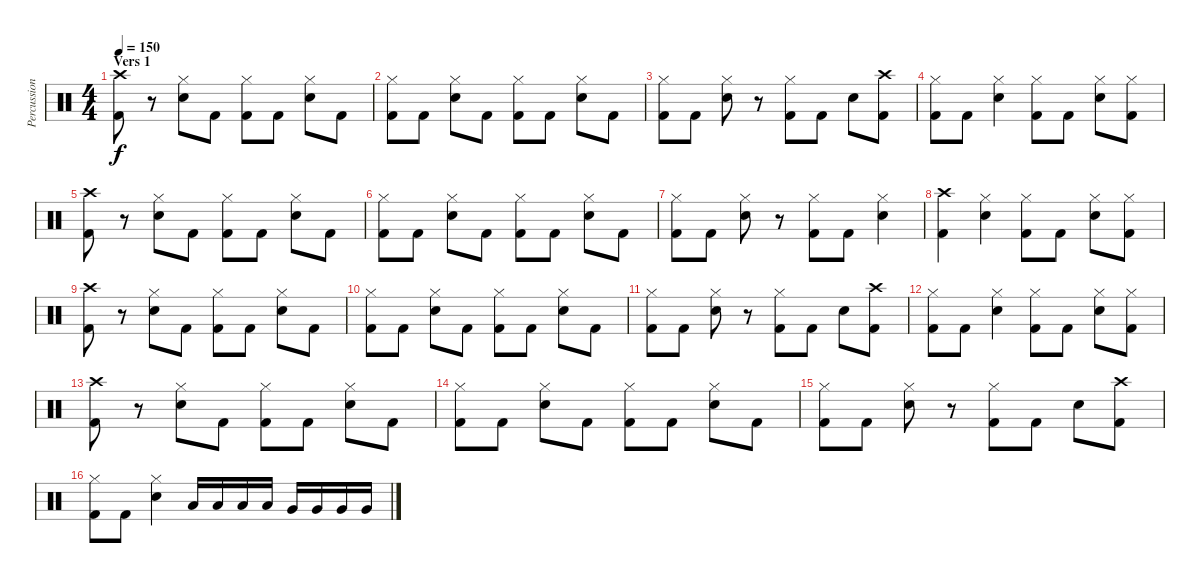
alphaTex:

\track ("Percussion" "Percussion") {instrument percussion}
\staff {score}
\articulation defaults
\ts (4 4)
\section ("" "Vers 1")
\tempo 150
\clef neutral
\ks c
("Crash high (hit)" "Kick (hit) 2").8{dy f} r.8 ("Hi-Hat (closed)" "Electric Snare (hit)").8 "Kick (hit) 2".8 ("Hi-Hat (closed)" "Kick (hit) 2").8 "Kick (hit) 2".8 ("Hi-Hat (closed)" "Electric Snare (hit)").8 "Kick (hit) 2".8 |
("Hi-Hat (closed)" "Kick (hit) 2").8 "Kick (hit) 2".8 ("Hi-Hat (closed)" "Electric Snare (hit)").8 "Kick (hit) 2".8 ("Hi-Hat (closed)" "Kick (hit) 2").8 "Kick (hit) 2".8 ("Hi-Hat (closed)" "Electric Snare (hit)").8 "Kick (hit) 2".8 |
("Hi-Hat (closed)" "Kick (hit) 2").8 "Kick (hit) 2".8 ("Hi-Hat (closed)" "Electric Snare (hit)").8 r.8 ("Hi-Hat (closed)" "Kick (hit) 2").8 "Kick (hit) 2".8 "Electric Snare (hit)".8 ("Crash high (hit)" "Kick (hit) 2").8 |
("Hi-Hat (closed)" "Kick (hit) 2").8 "Kick (hit) 2".8 ("Hi-Hat (closed)" "Electric Snare (hit)").4 ("Hi-Hat (closed)" "Kick (hit) 2").8 "Kick (hit) 2".8 ("Hi-Hat (closed)" "Electric Snare (hit)").8 ("Hi-Hat (closed)" "Kick (hit) 2").8 |
("Crash high (hit)" "Kick (hit) 2").8 r.8 ("Hi-Hat (closed)" "Electric Snare (hit)").8 "Kick (hit) 2".8 ("Hi-Hat (closed)" "Kick (hit) 2").8 "Kick (hit) 2".8 ("Hi-Hat (closed)" "Electric Snare (hit)").8 "Kick (hit) 2".8 |
("Hi-Hat (closed)" "Kick (hit) 2").8 "Kick (hit) 2".8 ("Hi-Hat (closed)" "Electric Snare (hit)").8 "Kick (hit) 2".8 ("Hi-Hat (closed)" "Kick (hit) 2").8 "Kick (hit) 2".8 ("Hi-Hat (closed)" "Electric Snare (hit)").8 "Kick (hit) 2".8 |
("Hi-Hat (closed)" "Kick (hit) 2").8 "Kick (hit) 2".8 ("Hi-Hat (closed)" "Electric Snare (hit)").8 r.8 ("Hi-Hat (closed)" "Kick (hit) 2").8 "Kick (hit) 2".8 ("Hi-Hat (closed)" "Electric Snare (hit)").4 |
("Crash high (hit)" "Kick (hit) 2").4 ("Hi-Hat (closed)" "Electric Snare (hit)").4 ("Hi-Hat (closed)" "Kick (hit) 2").8 "Kick (hit) 2".8 ("Hi-Hat (closed)" "Electric Snare (hit)").8 ("Hi-Hat (closed)" "Kick (hit) 2").8 |
("Crash high (hit)" "Kick (hit) 2").8 r.8 ("Hi-Hat (closed)" "Electric Snare (hit)").8 "Kick (hit) 2".8 ("Hi-Hat (closed)" "Kick (hit) 2").8 "Kick (hit) 2".8 ("Hi-Hat (closed)" "Electric Snare (hit)").8 "Kick (hit) 2".8 |
("Hi-Hat (closed)" "Kick (hit) 2").8 "Kick (hit) 2".8 ("Hi-Hat (closed)" "Electric Snare (hit)").8 "Kick (hit) 2".8 ("Hi-Hat (closed)" "Kick (hit) 2").8 "Kick (hit) 2".8 ("Hi-Hat (closed)" "Electric Snare (hit)").8 "Kick (hit) 2".8 |
("Hi-Hat (closed)" "Kick (hit) 2").8 "Kick (hit) 2".8 ("Hi-Hat (closed)" "Electric Snare (hit)").8 r.8 ("Hi-Hat (closed)" "Kick (hit) 2").8 "Kick (hit) 2".8 "Electric Snare (hit)".8 ("Crash high (hit)" "Kick (hit) 2").8 |
("Hi-Hat (closed)" "Kick (hit) 2").8 "Kick (hit) 2".8 ("Hi-Hat (closed)" "Electric Snare (hit)").4 ("Hi-Hat (closed)" "Kick (hit) 2").8 "Kick (hit) 2".8 ("Hi-Hat (closed)" "Electric Snare (hit)").8 ("Hi-Hat (closed)" "Kick (hit) 2").8 |
("Crash high (hit)" "Kick (hit) 2").8 r.8 ("Hi-Hat (closed)" "Electric Snare (hit)").8 "Kick (hit) 2".8 ("Hi-Hat (closed)" "Kick (hit) 2").8 "Kick (hit) 2".8 ("Hi-Hat (closed)" "Electric Snare (hit)").8 "Kick (hit) 2".8 |
("Hi-Hat (closed)" "Kick (hit) 2").8 "Kick (hit) 2".8 ("Hi-Hat (closed)" "Electric Snare (hit)").8 "Kick (hit) 2".8 ("Hi-Hat (closed)" "Kick (hit) 2").8 "Kick (hit) 2".8 ("Hi-Hat (closed)" "Electric Snare (hit)").8 "Kick (hit) 2".8 |
("Hi-Hat (closed)" "Kick (hit) 2").8 "Kick (hit) 2".8 ("Hi-Hat (closed)" "Electric Snare (hit)").8 r.8 ("Hi-Hat (closed)" "Kick (hit) 2").8 "Kick (hit) 2".8 "Electric Snare (hit)".8 ("Crash high (hit)" "Kick (hit) 2").8 |
("Hi-Hat (closed)" "Kick (hit) 2").8 "Kick (hit) 2".8 ("Hi-Hat (closed)" "Electric Snare (hit)").4 "Low Tom (hit)".16 "Low Tom (hit)".16 "Low Tom (hit)".16 "Low Tom (hit)".16 "Very Low Tom (hit)".16 "Very Low Tom (hit)".16 "Very Low Tom (hit)".16 "Very Low Tom (hit)".16
